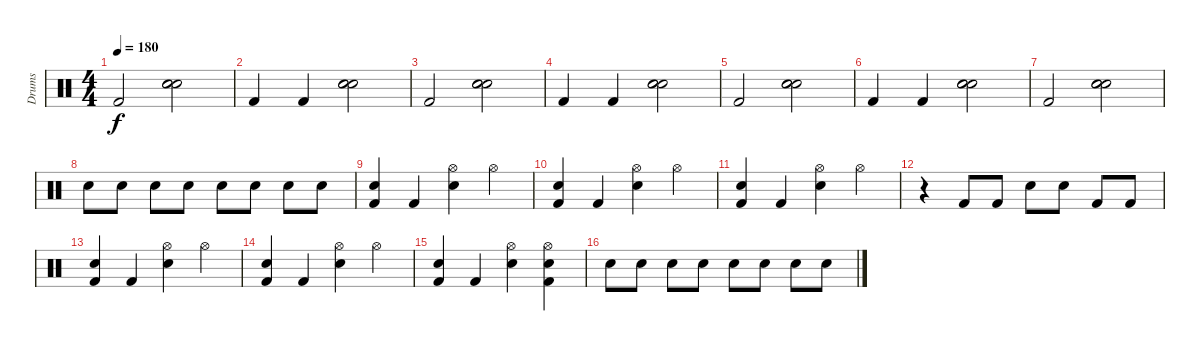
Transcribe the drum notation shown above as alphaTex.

\track ("Drums" "Drums") {instrument percussion}
\staff {score}
\articulation defaults
\ts (4 4)
\tempo 180
\clef neutral
\ks c "Kick (hit) 2".2{dy f}
("Snare (hit) 2" "Electric Snare (hit)" "Snare (hit)").2 |
"Kick (hit) 2".4 "Kick (hit) 2".4 ("Snare (hit) 2" "Electric Snare (hit)" "Snare (hit)").2 |
"Kick (hit) 2".2 ("Snare (hit) 2" "Electric Snare (hit)" "Snare (hit)").2 |
"Kick (hit) 2".4 "Kick (hit) 2".4 ("Snare (hit) 2" "Electric Snare (hit)" "Snare (hit)").2 |
"Kick (hit) 2".2 ("Snare (hit) 2" "Electric Snare (hit)" "Snare (hit)").2 |
"Kick (hit) 2".4 "Kick (hit) 2".4 ("Snare (hit) 2" "Electric Snare (hit)" "Snare (hit)").2 |
"Kick (hit) 2".2 ("Snare (hit) 2" "Electric Snare (hit)" "Snare (hit)").2 |
"Snare (hit) 2".8 "Snare (hit) 2".8 "Snare (hit) 2".8 "Snare (hit) 2".8 "Snare (hit) 2".8 "Snare (hit) 2".8 "Snare (hit) 2".8 "Snare (hit) 2".8 |
("Kick (hit) 2" "Snare (hit) 2").4 "Kick (hit) 2".4 ("Snare (hit) 2" "Hi-Hat (open)").4 "Hi-Hat (open)".4 |
("Kick (hit) 2" "Snare (hit) 2").4 "Kick (hit) 2".4 ("Snare (hit) 2" "Hi-Hat (open)").4 "Hi-Hat (open)".4 |
("Kick (hit) 2" "Snare (hit) 2").4 "Kick (hit) 2".4 ("Snare (hit) 2" "Hi-Hat (open)").4 "Hi-Hat (open)".4 |
r.4 "Kick (hit) 2".8 "Kick (hit) 2".8 "Snare (hit) 2".8 "Snare (hit) 2".8 "Kick (hit) 2".8 "Kick (hit) 2".8 |
("Kick (hit) 2" "Snare (hit) 2").4 "Kick (hit) 2".4 ("Snare (hit) 2" "Hi-Hat (open)").4 "Hi-Hat (open)".4 |
("Kick (hit) 2" "Snare (hit) 2").4 "Kick (hit) 2".4 ("Snare (hit) 2" "Hi-Hat (open)").4 "Hi-Hat (open)".4 |
("Kick (hit) 2" "Snare (hit) 2").4 "Kick (hit) 2".4 ("Snare (hit) 2" "Hi-Hat (open)").4 ("Kick (hit) 2" "Snare (hit) 2" "Hi-Hat (open)").4 |
"Snare (hit) 2".8 "Snare (hit) 2".8 "Snare (hit) 2".8 "Snare (hit) 2".8 "Snare (hit) 2".8 "Snare (hit) 2".8 "Snare (hit) 2".8 "Snare (hit) 2".8
